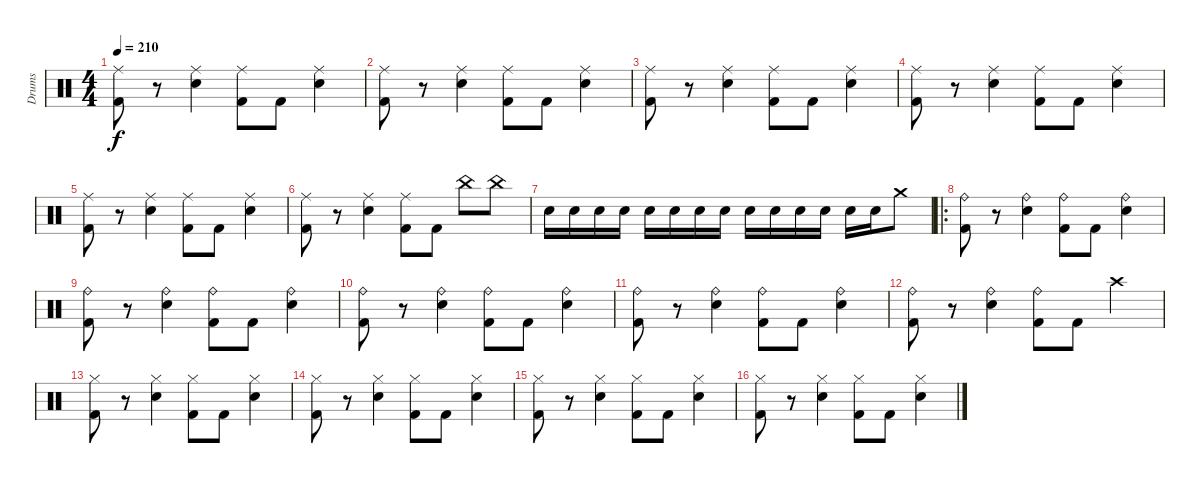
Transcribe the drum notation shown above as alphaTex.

\track ("Drums" "Drums") {instrument percussion}
\staff {score}
\articulation defaults
\ts (4 4)
\tempo 210
\clef neutral
\ks c
("Kick (hit) 2" "Ride (middle)").8{dy f} r.8 ("Snare (hit) 2" "Ride (middle)").4 ("Kick (hit) 2" "Ride (middle)").8 "Kick (hit) 2".8 ("Snare (hit) 2" "Ride (middle)").4 |
("Kick (hit) 2" "Ride (middle)").8 r.8 ("Snare (hit) 2" "Ride (middle)").4 ("Kick (hit) 2" "Ride (middle)").8 "Kick (hit) 2".8 ("Snare (hit) 2" "Ride (middle)").4 |
("Kick (hit) 2" "Ride (middle)").8 r.8 ("Snare (hit) 2" "Ride (middle)").4 ("Kick (hit) 2" "Ride (middle)").8 "Kick (hit) 2".8 ("Snare (hit) 2" "Ride (middle)").4 |
("Kick (hit) 2" "Ride (middle)").8 r.8 ("Snare (hit) 2" "Ride (middle)").4 ("Kick (hit) 2" "Ride (middle)").8 "Kick (hit) 2".8 ("Snare (hit) 2" "Ride (middle)").4 |
("Kick (hit) 2" "Ride (middle)").8 r.8 ("Snare (hit) 2" "Ride (middle)").4 ("Kick (hit) 2" "Ride (middle)").8 "Kick (hit) 2".8 ("Snare (hit) 2" "Ride (middle)").4 |
("Kick (hit) 2" "Ride (middle)").8 r.8 ("Snare (hit) 2" "Ride (middle)").4 ("Kick (hit) 2" "Ride (middle)").8 "Kick (hit) 2".8 "China (hit)".8 "China (hit)".8 |
"Snare (hit) 2".16 "Snare (hit) 2".16 "Snare (hit) 2".16 "Snare (hit) 2".16 "Snare (hit) 2".16 "Snare (hit) 2".16 "Snare (hit) 2".16 "Snare (hit) 2".16 "Snare (hit) 2".16 "Snare (hit) 2".16 "Snare (hit) 2".16 "Snare (hit) 2".16 "Snare (hit) 2".16 "Snare (hit) 2".16 "Crash medium (hit)".8 |
\ro
("Kick (hit) 2" "Ride (bell)").8{volume 13} r.8 ("Snare (hit) 2" "Ride (bell)").4 ("Kick (hit) 2" "Ride (bell)").8 "Kick (hit) 2".8 ("Snare (hit) 2" "Ride (bell)").4 |
("Kick (hit) 2" "Ride (bell)").8 r.8 ("Snare (hit) 2" "Ride (bell)").4 ("Kick (hit) 2" "Ride (bell)").8 "Kick (hit) 2".8 ("Snare (hit) 2" "Ride (bell)").4 |
("Kick (hit) 2" "Ride (bell)").8 r.8 ("Snare (hit) 2" "Ride (bell)").4 ("Kick (hit) 2" "Ride (bell)").8 "Kick (hit) 2".8 ("Snare (hit) 2" "Ride (bell)").4 |
("Kick (hit) 2" "Ride (bell)").8 r.8 ("Snare (hit) 2" "Ride (bell)").4 ("Kick (hit) 2" "Ride (bell)").8 "Kick (hit) 2".8 ("Snare (hit) 2" "Ride (bell)").4 |
("Kick (hit) 2" "Ride (bell)").8 r.8 ("Snare (hit) 2" "Ride (bell)").4 ("Kick (hit) 2" "Ride (bell)").8 "Kick (hit) 2".8 "Crash high (hit)".4 |
("Kick (hit) 2" "Hi-Hat (closed)").8 r.8 ("Snare (hit) 2" "Hi-Hat (closed)").4 ("Kick (hit) 2" "Hi-Hat (closed)").8 "Kick (hit) 2".8 ("Snare (hit) 2" "Hi-Hat (closed)").4 |
("Kick (hit) 2" "Hi-Hat (closed)").8 r.8 ("Snare (hit) 2" "Hi-Hat (closed)").4 ("Kick (hit) 2" "Hi-Hat (closed)").8 "Kick (hit) 2".8 ("Snare (hit) 2" "Hi-Hat (closed)").4 |
("Kick (hit) 2" "Hi-Hat (closed)").8 r.8 ("Snare (hit) 2" "Hi-Hat (closed)").4 ("Kick (hit) 2" "Hi-Hat (closed)").8 "Kick (hit) 2".8 ("Snare (hit) 2" "Hi-Hat (closed)").4 |
("Kick (hit) 2" "Hi-Hat (closed)").8 r.8 ("Snare (hit) 2" "Hi-Hat (closed)").4 ("Kick (hit) 2" "Hi-Hat (closed)").8 "Kick (hit) 2".8 ("Snare (hit) 2" "Hi-Hat (closed)").4
